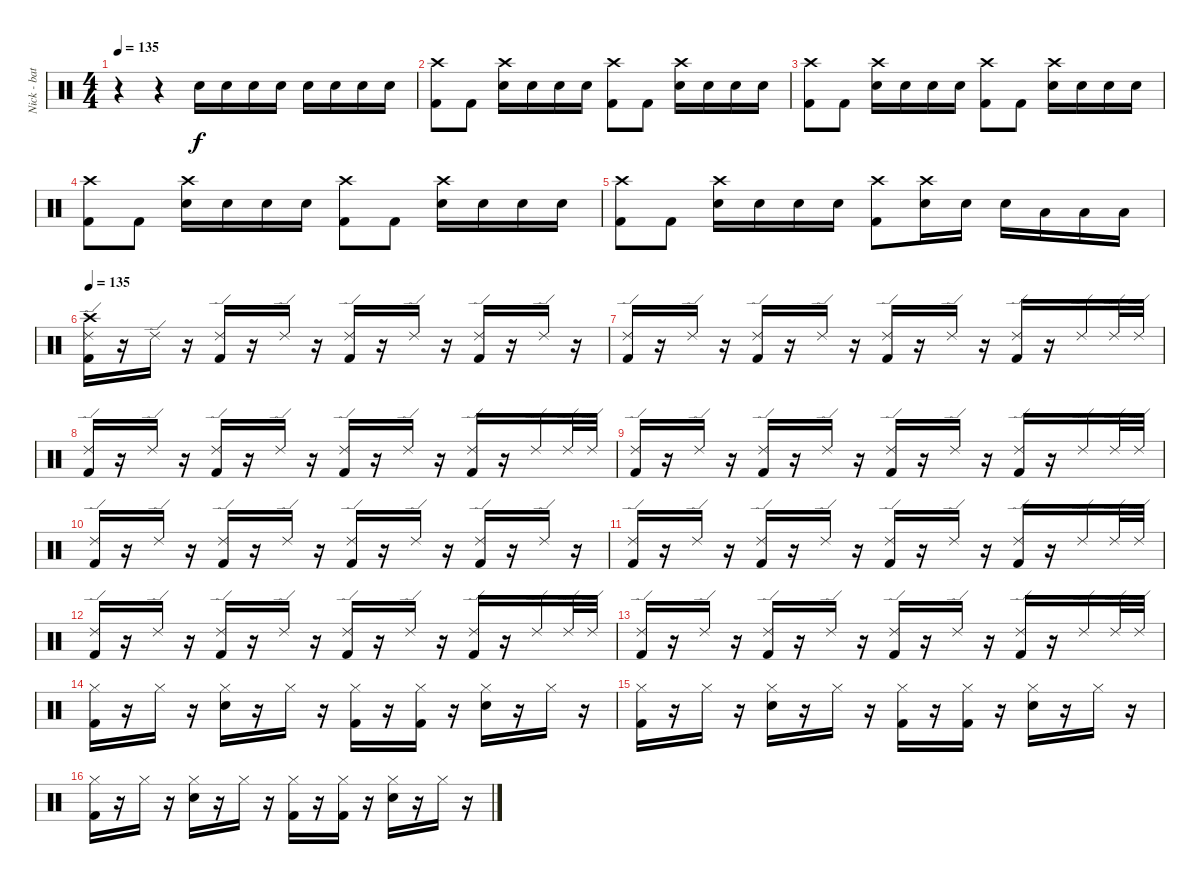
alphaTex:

\track ("Nick - batterie" "Nick - bat") {instrument percussion}
\staff {score}
\articulation defaults
\ts (4 4)
\tempo 135
\clef neutral
\ks c
r.4{dy f} r.4 "Electric Snare (hit)".16 "Electric Snare (hit)".16 "Electric Snare (hit)".16 "Electric Snare (hit)".16 "Electric Snare (hit)".16 "Electric Snare (hit)".16 "Electric Snare (hit)".16 "Electric Snare (hit)".16 |
("Crash high (hit)" "Kick (hit) 2").8 "Kick (hit) 2".8 ("Crash high (hit)" "Electric Snare (hit)").16 "Electric Snare (hit)".16 "Electric Snare (hit)".16 "Electric Snare (hit)".16 ("Crash high (hit)" "Kick (hit) 2").8 "Kick (hit) 2".8 ("Crash high (hit)" "Electric Snare (hit)").16 "Electric Snare (hit)".16 "Electric Snare (hit)".16 "Electric Snare (hit)".16 |
("Crash high (hit)" "Kick (hit) 2").8 "Kick (hit) 2".8 ("Crash high (hit)" "Electric Snare (hit)").16 "Electric Snare (hit)".16 "Electric Snare (hit)".16 "Electric Snare (hit)".16 ("Crash high (hit)" "Kick (hit) 2").8 "Kick (hit) 2".8 ("Crash high (hit)" "Electric Snare (hit)").16 "Electric Snare (hit)".16 "Electric Snare (hit)".16 "Electric Snare (hit)".16 |
("Crash high (hit)" "Kick (hit) 2").8 "Kick (hit) 2".8 ("Crash high (hit)" "Electric Snare (hit)").16 "Electric Snare (hit)".16 "Electric Snare (hit)".16 "Electric Snare (hit)".16 ("Crash high (hit)" "Kick (hit) 2").8 "Kick (hit) 2".8 ("Crash high (hit)" "Electric Snare (hit)").16 "Electric Snare (hit)".16 "Electric Snare (hit)".16 "Electric Snare (hit)".16 |
("Crash high (hit)" "Kick (hit) 2").8 "Kick (hit) 2".8 ("Crash high (hit)" "Electric Snare (hit)").16 "Electric Snare (hit)".16 "Electric Snare (hit)".16 "Electric Snare (hit)".16 ("Crash high (hit)" "Kick (hit) 2").8 ("Crash high (hit)" "Electric Snare (hit)").16 "Electric Snare (hit)".16 "Electric Snare (hit)".16 "Low Floor Tom (hit)".16 "Low Floor Tom (hit)".16 "Low Floor Tom (hit)".16 |
\tempo 135
("Crash high (hit)" "Ride (edge) 2" "Kick (hit) 2").16 r.16 "Ride (edge) 2".16 r.16 ("Ride (edge) 2" "Kick (hit) 2").16 r.16 "Ride (edge) 2".16 r.16 ("Ride (edge) 2" "Kick (hit) 2").16 r.16 "Ride (edge) 2".16 r.16 ("Ride (edge) 2" "Kick (hit) 2").16 r.16 "Ride (edge) 2".16 r.16 |
("Ride (edge) 2" "Kick (hit) 2").16 r.16 "Ride (edge) 2".16 r.16 ("Ride (edge) 2" "Kick (hit) 2").16 r.16 "Ride (edge) 2".16 r.16 ("Ride (edge) 2" "Kick (hit) 2").16 r.16 "Ride (edge) 2".16 r.16 ("Ride (edge) 2" "Kick (hit) 2").16 r.16 "Ride (edge) 2".16 "Ride (edge) 2".32 "Ride (edge) 2".32 |
("Ride (edge) 2" "Kick (hit) 2").16 r.16 "Ride (edge) 2".16 r.16 ("Ride (edge) 2" "Kick (hit) 2").16 r.16 "Ride (edge) 2".16 r.16 ("Ride (edge) 2" "Kick (hit) 2").16 r.16 "Ride (edge) 2".16 r.16 ("Ride (edge) 2" "Kick (hit) 2").16 r.16 "Ride (edge) 2".16 "Ride (edge) 2".32 "Ride (edge) 2".32 |
("Ride (edge) 2" "Kick (hit) 2").16 r.16 "Ride (edge) 2".16 r.16 ("Ride (edge) 2" "Kick (hit) 2").16 r.16 "Ride (edge) 2".16 r.16 ("Ride (edge) 2" "Kick (hit) 2").16 r.16 "Ride (edge) 2".16 r.16 ("Ride (edge) 2" "Kick (hit) 2").16 r.16 "Ride (edge) 2".16 "Ride (edge) 2".32 "Ride (edge) 2".32 |
("Ride (edge) 2" "Kick (hit) 2").16 r.16 "Ride (edge) 2".16 r.16 ("Ride (edge) 2" "Kick (hit) 2").16 r.16 "Ride (edge) 2".16 r.16 ("Ride (edge) 2" "Kick (hit) 2").16 r.16 "Ride (edge) 2".16 r.16 ("Ride (edge) 2" "Kick (hit) 2").16 r.16 "Ride (edge) 2".16 r.16 |
("Ride (edge) 2" "Kick (hit) 2").16 r.16 "Ride (edge) 2".16 r.16 ("Ride (edge) 2" "Kick (hit) 2").16 r.16 "Ride (edge) 2".16 r.16 ("Ride (edge) 2" "Kick (hit) 2").16 r.16 "Ride (edge) 2".16 r.16 ("Ride (edge) 2" "Kick (hit) 2").16 r.16 "Ride (edge) 2".16 "Ride (edge) 2".32 "Ride (edge) 2".32 |
("Ride (edge) 2" "Kick (hit) 2").16 r.16 "Ride (edge) 2".16 r.16 ("Ride (edge) 2" "Kick (hit) 2").16 r.16 "Ride (edge) 2".16 r.16 ("Ride (edge) 2" "Kick (hit) 2").16 r.16 "Ride (edge) 2".16 r.16 ("Ride (edge) 2" "Kick (hit) 2").16 r.16 "Ride (edge) 2".16 "Ride (edge) 2".32 "Ride (edge) 2".32 |
("Ride (edge) 2" "Kick (hit) 2").16 r.16 "Ride (edge) 2".16 r.16 ("Ride (edge) 2" "Kick (hit) 2").16 r.16 "Ride (edge) 2".16 r.16 ("Ride (edge) 2" "Kick (hit) 2").16 r.16 "Ride (edge) 2".16 r.16 ("Ride (edge) 2" "Kick (hit) 2").16 r.16 "Ride (edge) 2".16 "Ride (edge) 2".32 "Ride (edge) 2".32 |
("Hi-Hat (closed)" "Kick (hit) 2").16 r.16 "Hi-Hat (closed)".16 r.16 ("Hi-Hat (closed)" "Electric Snare (hit)").16 r.16 "Hi-Hat (closed)".16 r.16 ("Hi-Hat (closed)" "Kick (hit) 2").16 r.16 ("Hi-Hat (closed)" "Kick (hit) 2").16 r.16 ("Hi-Hat (closed)" "Electric Snare (hit)").16 r.16 "Hi-Hat (closed)".16 r.16 |
("Hi-Hat (closed)" "Kick (hit) 2").16 r.16 "Hi-Hat (closed)".16 r.16 ("Hi-Hat (closed)" "Electric Snare (hit)").16 r.16 "Hi-Hat (closed)".16 r.16 ("Hi-Hat (closed)" "Kick (hit) 2").16 r.16 ("Hi-Hat (closed)" "Kick (hit) 2").16 r.16 ("Hi-Hat (closed)" "Electric Snare (hit)").16 r.16 "Hi-Hat (closed)".16 r.16 |
("Hi-Hat (closed)" "Kick (hit) 2").16 r.16 "Hi-Hat (closed)".16 r.16 ("Hi-Hat (closed)" "Electric Snare (hit)").16 r.16 "Hi-Hat (closed)".16 r.16 ("Hi-Hat (closed)" "Kick (hit) 2").16 r.16 ("Hi-Hat (closed)" "Kick (hit) 2").16 r.16 ("Hi-Hat (closed)" "Electric Snare (hit)").16 r.16 "Hi-Hat (closed)".16 r.16
